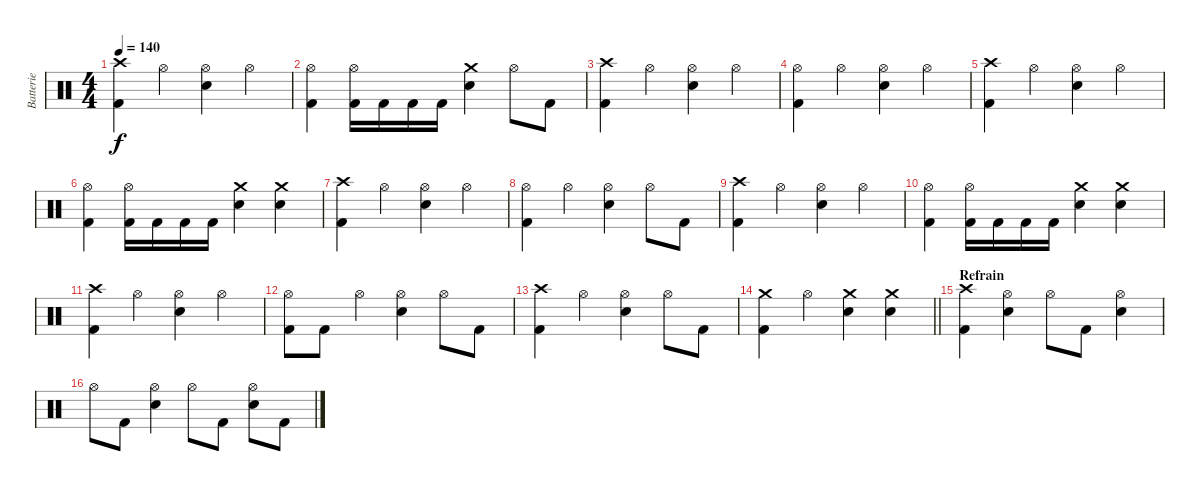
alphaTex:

\track ("Batterie" "Batterie") {instrument percussion}
\staff {score}
\articulation defaults
\ts (4 4)
\tempo 140
\clef neutral
\ks c
("Crash high (hit)" "Kick (hit) 2").4{dy f} "Hi-Hat (open)".4 ("Hi-Hat (open)" "Electric Snare (hit)").4 "Hi-Hat (open)".4 |
("Hi-Hat (open)" "Kick (hit) 2").4 ("Hi-Hat (open)" "Kick (hit) 2").16 "Kick (hit) 2".16 "Kick (hit) 2".16 "Kick (hit) 2".16 ("Crash medium (hit)" "Electric Snare (hit)").4 "Hi-Hat (open)".8 "Kick (hit) 2".8 |
("Crash high (hit)" "Kick (hit) 2").4 "Hi-Hat (open)".4 ("Hi-Hat (open)" "Electric Snare (hit)").4 "Hi-Hat (open)".4 |
("Hi-Hat (open)" "Kick (hit) 2").4 "Hi-Hat (open)".4 ("Hi-Hat (open)" "Electric Snare (hit)").4 "Hi-Hat (open)".4 |
("Crash high (hit)" "Kick (hit) 2").4 "Hi-Hat (open)".4 ("Hi-Hat (open)" "Electric Snare (hit)").4 "Hi-Hat (open)".4 |
("Hi-Hat (open)" "Kick (hit) 2").4 ("Hi-Hat (open)" "Kick (hit) 2").16 "Kick (hit) 2".16 "Kick (hit) 2".16 "Kick (hit) 2".16 ("Crash medium (hit)" "Electric Snare (hit)").4 ("Crash medium (hit)" "Electric Snare (hit)").4 |
("Crash high (hit)" "Kick (hit) 2").4 "Hi-Hat (open)".4 ("Hi-Hat (open)" "Electric Snare (hit)").4 "Hi-Hat (open)".4 |
("Hi-Hat (open)" "Kick (hit) 2").4 "Hi-Hat (open)".4 ("Hi-Hat (open)" "Electric Snare (hit)").4 "Hi-Hat (open)".8 "Kick (hit) 2".8 |
("Crash high (hit)" "Kick (hit) 2").4 "Hi-Hat (open)".4 ("Hi-Hat (open)" "Electric Snare (hit)").4 "Hi-Hat (open)".4 |
("Hi-Hat (open)" "Kick (hit) 2").4 ("Hi-Hat (open)" "Kick (hit) 2").16 "Kick (hit) 2".16 "Kick (hit) 2".16 "Kick (hit) 2".16 ("Crash medium (hit)" "Electric Snare (hit)").4 ("Crash medium (hit)" "Electric Snare (hit)").4 |
("Crash high (hit)" "Kick (hit) 2").4 "Hi-Hat (open)".4 ("Hi-Hat (open)" "Electric Snare (hit)").4 "Hi-Hat (open)".4 |
("Hi-Hat (open)" "Kick (hit) 2").8 "Kick (hit) 2".8 "Hi-Hat (open)".4 ("Hi-Hat (open)" "Electric Snare (hit)").4 "Hi-Hat (open)".8 "Kick (hit) 2".8 |
("Crash high (hit)" "Kick (hit) 2").4 "Hi-Hat (open)".4 ("Hi-Hat (open)" "Electric Snare (hit)").4 "Hi-Hat (open)".8 "Kick (hit) 2".8 |
\barLineRight lightlight
("Crash medium (hit)" "Kick (hit) 2").4 "Hi-Hat (open)".4 ("Crash medium (hit)" "Electric Snare (hit)").4 ("Crash medium (hit)" "Electric Snare (hit)").4 |
\section ("" "Refrain")
("Crash high (hit)" "Kick (hit) 2").4 ("Hi-Hat (open)" "Electric Snare (hit)").4 "Hi-Hat (open)".8 "Kick (hit) 2".8 ("Hi-Hat (open)" "Electric Snare (hit)").4 |
"Hi-Hat (open)".8 "Kick (hit) 2".8 ("Hi-Hat (open)" "Electric Snare (hit)").4 "Hi-Hat (open)".8 "Kick (hit) 2".8 ("Hi-Hat (open)" "Electric Snare (hit)").8 "Kick (hit) 2".8
